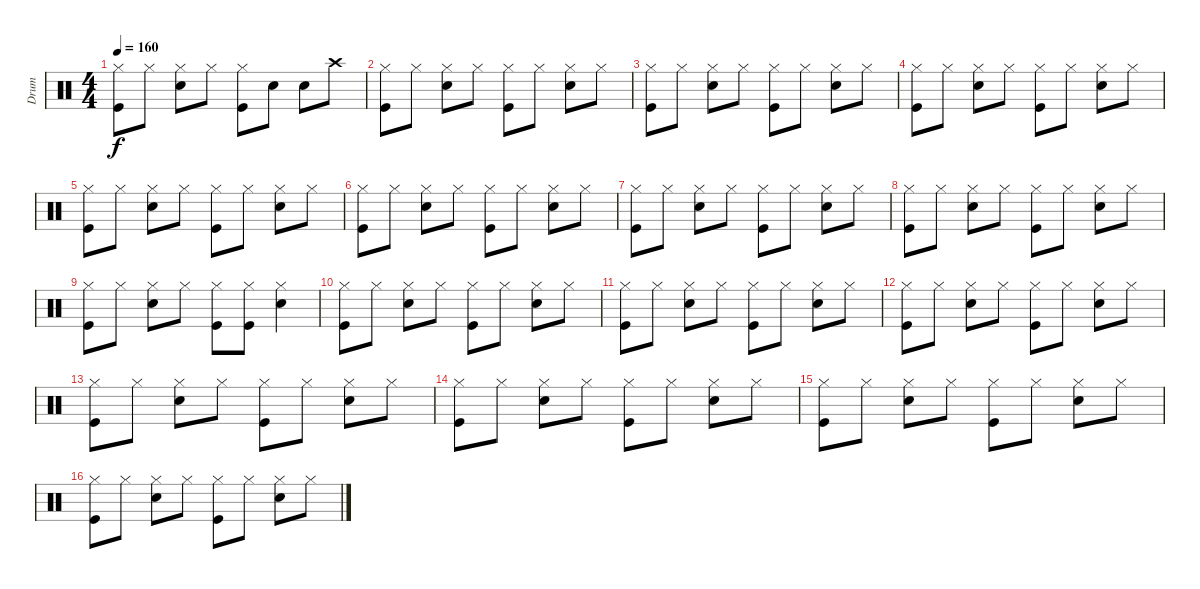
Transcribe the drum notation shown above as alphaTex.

\track ("Drum" "Drum") {instrument percussion}
\staff {score}
\articulation defaults
\ts (4 4)
\tempo 160
\clef neutral
\ks c
("Hi-Hat (closed)" "Kick (hit)").8{dy f} "Hi-Hat (closed)".8 ("Hi-Hat (closed)" "Snare (hit) 2").8 "Hi-Hat (closed)".8 ("Hi-Hat (closed)" "Kick (hit)").8 "Snare (hit) 2".8 "Snare (hit) 2".8 "Crash high (hit)".8 |
("Hi-Hat (closed)" "Kick (hit)").8 "Hi-Hat (closed)".8 ("Hi-Hat (closed)" "Snare (hit) 2").8 "Hi-Hat (closed)".8 ("Hi-Hat (closed)" "Kick (hit)").8 "Hi-Hat (closed)".8 ("Hi-Hat (closed)" "Snare (hit) 2").8 "Hi-Hat (closed)".8 |
("Hi-Hat (closed)" "Kick (hit)").8 "Hi-Hat (closed)".8 ("Hi-Hat (closed)" "Snare (hit) 2").8 "Hi-Hat (closed)".8 ("Hi-Hat (closed)" "Kick (hit)").8 "Hi-Hat (closed)".8 ("Hi-Hat (closed)" "Snare (hit) 2").8 "Hi-Hat (closed)".8 |
("Hi-Hat (closed)" "Kick (hit)").8 "Hi-Hat (closed)".8 ("Hi-Hat (closed)" "Snare (hit) 2").8 "Hi-Hat (closed)".8 ("Hi-Hat (closed)" "Kick (hit)").8 "Hi-Hat (closed)".8 ("Hi-Hat (closed)" "Snare (hit) 2").8 "Hi-Hat (closed)".8 |
("Hi-Hat (closed)" "Kick (hit)").8 "Hi-Hat (closed)".8 ("Hi-Hat (closed)" "Snare (hit) 2").8 "Hi-Hat (closed)".8 ("Hi-Hat (closed)" "Kick (hit)").8 "Hi-Hat (closed)".8 ("Hi-Hat (closed)" "Snare (hit) 2").8 "Hi-Hat (closed)".8 |
("Hi-Hat (closed)" "Kick (hit)").8 "Hi-Hat (closed)".8 ("Hi-Hat (closed)" "Snare (hit) 2").8 "Hi-Hat (closed)".8 ("Hi-Hat (closed)" "Kick (hit)").8 "Hi-Hat (closed)".8 ("Hi-Hat (closed)" "Snare (hit) 2").8 "Hi-Hat (closed)".8 |
("Hi-Hat (closed)" "Kick (hit)").8 "Hi-Hat (closed)".8 ("Hi-Hat (closed)" "Snare (hit) 2").8 "Hi-Hat (closed)".8 ("Hi-Hat (closed)" "Kick (hit)").8 "Hi-Hat (closed)".8 ("Hi-Hat (closed)" "Snare (hit) 2").8 "Hi-Hat (closed)".8 |
("Hi-Hat (closed)" "Kick (hit)").8 "Hi-Hat (closed)".8 ("Hi-Hat (closed)" "Snare (hit) 2").8 "Hi-Hat (closed)".8 ("Hi-Hat (closed)" "Kick (hit)").8 "Hi-Hat (closed)".8 ("Hi-Hat (closed)" "Snare (hit) 2").8 "Hi-Hat (closed)".8 |
("Hi-Hat (closed)" "Kick (hit)").8 "Hi-Hat (closed)".8 ("Hi-Hat (closed)" "Snare (hit) 2").8 "Hi-Hat (closed)".8 ("Hi-Hat (closed)" "Kick (hit)").8 ("Hi-Hat (closed)" "Kick (hit)").8 ("Hi-Hat (closed)" "Snare (hit) 2").4 |
("Hi-Hat (closed)" "Kick (hit)").8 "Hi-Hat (closed)".8 ("Hi-Hat (closed)" "Snare (hit) 2").8 "Hi-Hat (closed)".8 ("Hi-Hat (closed)" "Kick (hit)").8 "Hi-Hat (closed)".8 ("Hi-Hat (closed)" "Snare (hit) 2").8 "Hi-Hat (closed)".8 |
("Hi-Hat (closed)" "Kick (hit)").8 "Hi-Hat (closed)".8 ("Hi-Hat (closed)" "Snare (hit) 2").8 "Hi-Hat (closed)".8 ("Hi-Hat (closed)" "Kick (hit)").8 "Hi-Hat (closed)".8 ("Hi-Hat (closed)" "Snare (hit) 2").8 "Hi-Hat (closed)".8 |
("Hi-Hat (closed)" "Kick (hit)").8 "Hi-Hat (closed)".8 ("Hi-Hat (closed)" "Snare (hit) 2").8 "Hi-Hat (closed)".8 ("Hi-Hat (closed)" "Kick (hit)").8 "Hi-Hat (closed)".8 ("Hi-Hat (closed)" "Snare (hit) 2").8 "Hi-Hat (closed)".8 |
("Hi-Hat (closed)" "Kick (hit)").8 "Hi-Hat (closed)".8 ("Hi-Hat (closed)" "Snare (hit) 2").8 "Hi-Hat (closed)".8 ("Hi-Hat (closed)" "Kick (hit)").8 "Hi-Hat (closed)".8 ("Hi-Hat (closed)" "Snare (hit) 2").8 "Hi-Hat (closed)".8 |
("Hi-Hat (closed)" "Kick (hit)").8 "Hi-Hat (closed)".8 ("Hi-Hat (closed)" "Snare (hit) 2").8 "Hi-Hat (closed)".8 ("Hi-Hat (closed)" "Kick (hit)").8 "Hi-Hat (closed)".8 ("Hi-Hat (closed)" "Snare (hit) 2").8 "Hi-Hat (closed)".8 |
("Hi-Hat (closed)" "Kick (hit)").8 "Hi-Hat (closed)".8 ("Hi-Hat (closed)" "Snare (hit) 2").8 "Hi-Hat (closed)".8 ("Hi-Hat (closed)" "Kick (hit)").8 "Hi-Hat (closed)".8 ("Hi-Hat (closed)" "Snare (hit) 2").8 "Hi-Hat (closed)".8 |
("Hi-Hat (closed)" "Kick (hit)").8 "Hi-Hat (closed)".8 ("Hi-Hat (closed)" "Snare (hit) 2").8 "Hi-Hat (closed)".8 ("Hi-Hat (closed)" "Kick (hit)").8 "Hi-Hat (closed)".8 ("Hi-Hat (closed)" "Snare (hit) 2").8 "Hi-Hat (closed)".8
